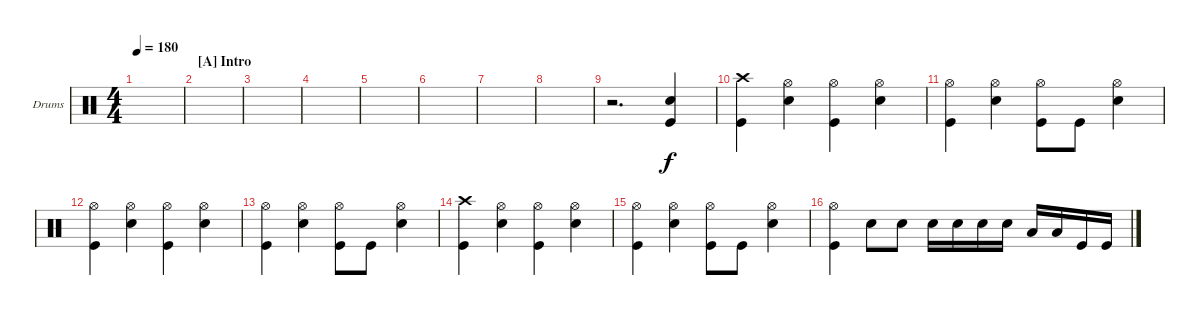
\defaultSystemsLayout 4
\bracketExtendMode groupsimilarinstruments
\firstSystemTrackNameOrientation horizontal
\otherSystemsTrackNameOrientation horizontal
\track ("Drumkit" "Drums") {instrument percussion}
\staff {score}
\articulation defaults
\ts (4 4)
\tempo 180
\clef neutral
\ks c
|
\section ("A" "Intro")
|
|
|
|
|
|
|
r.2{d} ("Snare (hit) 2" "Kick (hit)").4 |
("Crash high (hit)" "Kick (hit)").4 ("Snare (hit) 2" "Hi-Hat (open)").4 ("Kick (hit)" "Hi-Hat (open)").4 ("Snare (hit) 2" "Hi-Hat (open)").4 |
("Kick (hit)" "Hi-Hat (open)").4 ("Snare (hit) 2" "Hi-Hat (open)").4 ("Kick (hit)" "Hi-Hat (open)").8 "Kick (hit)".8 ("Snare (hit) 2" "Hi-Hat (open)").4 |
("Kick (hit)" "Hi-Hat (open)").4 ("Snare (hit) 2" "Hi-Hat (open)").4 ("Kick (hit)" "Hi-Hat (open)").4 ("Snare (hit) 2" "Hi-Hat (open)").4 |
("Kick (hit)" "Hi-Hat (open)").4 ("Snare (hit) 2" "Hi-Hat (open)").4 ("Kick (hit)" "Hi-Hat (open)").8 "Kick (hit)".8 ("Snare (hit) 2" "Hi-Hat (open)").4 |
("Crash high (hit)" "Kick (hit)").4 ("Snare (hit) 2" "Hi-Hat (open)").4 ("Kick (hit)" "Hi-Hat (open)").4 ("Snare (hit) 2" "Hi-Hat (open)").4 |
("Kick (hit)" "Hi-Hat (open)").4 ("Snare (hit) 2" "Hi-Hat (open)").4 ("Kick (hit)" "Hi-Hat (open)").8 "Kick (hit)".8 ("Snare (hit) 2" "Hi-Hat (open)").4 |
("Kick (hit)" "Hi-Hat (open)").4 "Snare (hit) 2".8 "Snare (hit) 2".8 "Snare (hit) 2".16 "Snare (hit) 2".16 "Snare (hit) 2".16 "Snare (hit) 2".16 "Low Tom (hit)".16 "Low Tom (hit)".16 "Kick (hit)".16 "Kick (hit)".16
